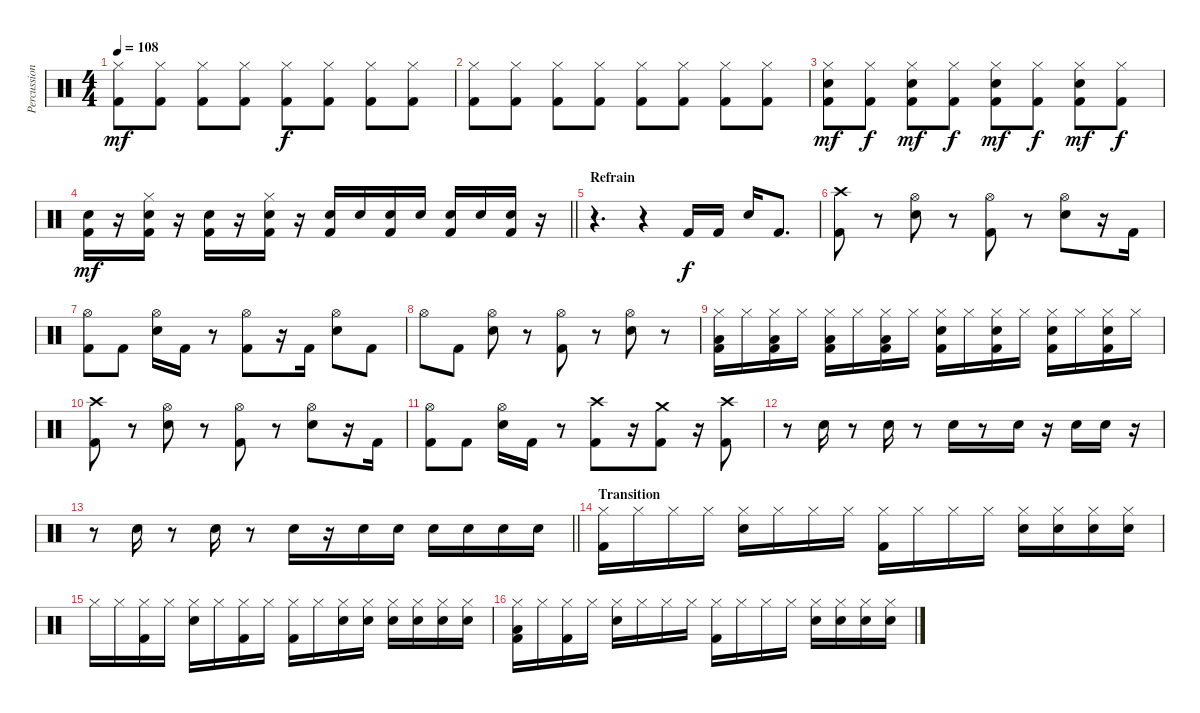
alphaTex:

\track ("Percussions" "Percussion") {instrument percussion}
\staff {score}
\articulation defaults
\ts (4 4)
\tempo 108
\clef neutral
\ks c
("Hi-Hat (closed)" "Kick (hit) 2").8{dy mf} ("Hi-Hat (closed)" "Kick (hit) 2").8 ("Hi-Hat (closed)" "Kick (hit) 2").8 ("Hi-Hat (closed)" "Kick (hit) 2").8 ("Hi-Hat (closed)" "Kick (hit) 2").8{dy f} ("Hi-Hat (closed)" "Kick (hit) 2").8 ("Hi-Hat (closed)" "Kick (hit) 2").8 ("Hi-Hat (closed)" "Kick (hit) 2").8 |
("Hi-Hat (closed)" "Kick (hit) 2").8 ("Hi-Hat (closed)" "Kick (hit) 2").8 ("Hi-Hat (closed)" "Kick (hit) 2").8 ("Hi-Hat (closed)" "Kick (hit) 2").8 ("Hi-Hat (closed)" "Kick (hit) 2").8 ("Hi-Hat (closed)" "Kick (hit) 2").8 ("Hi-Hat (closed)" "Kick (hit) 2").8 ("Hi-Hat (closed)" "Kick (hit) 2").8 |
("Hi-Hat (closed)" "Snare (hit) 2" "Kick (hit) 2").8{dy mf} ("Hi-Hat (closed)" "Kick (hit) 2").8{dy f} ("Hi-Hat (closed)" "Snare (hit) 2" "Kick (hit) 2").8{dy mf} ("Hi-Hat (closed)" "Kick (hit) 2").8{dy f} ("Hi-Hat (closed)" "Snare (hit) 2" "Kick (hit) 2").8{dy mf} ("Hi-Hat (closed)" "Kick (hit) 2").8{dy f} ("Hi-Hat (closed)" "Snare (hit) 2" "Kick (hit) 2").8{dy mf} ("Hi-Hat (closed)" "Kick (hit) 2").8{dy f} |
\barLineRight lightlight
("Snare (hit) 2" "Kick (hit) 2").16{dy mf} r.16 ("Hi-Hat (closed)" "Snare (hit) 2" "Kick (hit) 2").16 r.16 ("Snare (hit) 2" "Kick (hit) 2").16 r.16 ("Hi-Hat (closed)" "Snare (hit) 2" "Kick (hit) 2").16 r.16 ("Snare (hit) 2" "Kick (hit) 2").16 "Snare (hit) 2".16 ("Snare (hit) 2" "Kick (hit) 2").16 "Snare (hit) 2".16 ("Snare (hit) 2" "Kick (hit) 2").16 "Snare (hit) 2".16 ("Snare (hit) 2" "Kick (hit) 2").16 r.16 |
\section ("" "Refrain")
r.4{d} r.4 "Kick (hit) 2".16{dy f} "Kick (hit) 2".16 "Snare (hit) 2".16 "Kick (hit) 2".8{d} |
("Crash high (hit)" "Kick (hit) 2").8 r.8 ("Hi-Hat (open)" "Snare (hit) 2").8 r.8 ("Hi-Hat (open)" "Kick (hit) 2").8 r.8 ("Hi-Hat (open)" "Snare (hit) 2").8 r.16 "Kick (hit) 2".16 |
("Hi-Hat (open)" "Kick (hit) 2").8 "Kick (hit) 2".8 ("Hi-Hat (open)" "Snare (hit) 2").16 "Kick (hit) 2".16 r.8 ("Hi-Hat (open)" "Kick (hit) 2").8 r.16 "Kick (hit) 2".16 ("Hi-Hat (open)" "Snare (hit) 2").8 "Kick (hit) 2".8 |
"Hi-Hat (open)".8 "Kick (hit) 2".8 ("Hi-Hat (open)" "Snare (hit) 2").8 r.8 ("Hi-Hat (open)" "Kick (hit) 2").8 r.8 ("Hi-Hat (open)" "Snare (hit) 2").8 r.8 |
("Hi-Hat (closed)" "Low Floor Tom (hit)" "Kick (hit) 2").16 "Hi-Hat (closed)".16 ("Hi-Hat (closed)" "Low Floor Tom (hit)" "Kick (hit) 2").16 "Hi-Hat (closed)".16 ("Hi-Hat (closed)" "Low Floor Tom (hit)" "Kick (hit) 2").16 "Hi-Hat (closed)".16 ("Hi-Hat (closed)" "Low Floor Tom (hit)" "Kick (hit) 2").16 "Hi-Hat (closed)".16 ("Hi-Hat (closed)" "Electric Snare (hit)" "Kick (hit) 2").16 "Hi-Hat (closed)".16 ("Hi-Hat (closed)" "Electric Snare (hit)" "Kick (hit) 2").16 "Hi-Hat (closed)".16 ("Hi-Hat (closed)" "Electric Snare (hit)" "Kick (hit) 2").16 "Hi-Hat (closed)".16 ("Hi-Hat (closed)" "Electric Snare (hit)" "Kick (hit) 2").16 "Hi-Hat (closed)".16 |
("Crash high (hit)" "Kick (hit) 2").8 r.8 ("Hi-Hat (open)" "Snare (hit) 2").8 r.8 ("Hi-Hat (open)" "Kick (hit) 2").8 r.8 ("Hi-Hat (open)" "Snare (hit) 2").8 r.16 "Kick (hit) 2".16 |
("Hi-Hat (open)" "Kick (hit) 2").8 "Kick (hit) 2".8 ("Hi-Hat (open)" "Snare (hit) 2").16 "Kick (hit) 2".16 r.8 ("Crash high (hit)" "Kick (hit) 2").8 r.16 ("Crash medium (hit)" "Kick (hit) 2").8 r.16 ("Crash high (hit)" "Kick (hit) 2").8 |
r.8 "Electric Snare (hit)".16 r.8 "Electric Snare (hit)".16 r.8 "Electric Snare (hit)".16 r.8 "Electric Snare (hit)".16 r.16 "Electric Snare (hit)".16 "Electric Snare (hit)".16 r.16 |
\barLineRight lightlight
r.8 "Electric Snare (hit)".16 r.8 "Electric Snare (hit)".16 r.8 "Electric Snare (hit)".16 r.16 "Electric Snare (hit)".16 "Electric Snare (hit)".16 "Electric Snare (hit)".16 "Electric Snare (hit)".16 "Electric Snare (hit)".16 "Electric Snare (hit)".16 |
\section ("" "Transition")
("Hi-Hat (closed)" "Kick (hit) 2").16 "Hi-Hat (closed)".16 "Hi-Hat (closed)".16 "Hi-Hat (closed)".16 ("Hi-Hat (closed)" "Snare (hit) 2").16 "Hi-Hat (closed)".16 "Hi-Hat (closed)".16 "Hi-Hat (closed)".16 ("Hi-Hat (closed)" "Kick (hit) 2").16 "Hi-Hat (closed)".16 "Hi-Hat (closed)".16 "Hi-Hat (closed)".16 ("Hi-Hat (closed)" "Snare (hit) 2").16 ("Hi-Hat (closed)" "Snare (hit) 2").16 ("Hi-Hat (closed)" "Snare (hit) 2").16 ("Hi-Hat (closed)" "Snare (hit) 2").16 |
"Hi-Hat (closed)".16 "Hi-Hat (closed)".16 ("Hi-Hat (closed)" "Kick (hit) 2").16 "Hi-Hat (closed)".16 ("Hi-Hat (closed)" "Snare (hit) 2").16 "Hi-Hat (closed)".16 ("Hi-Hat (closed)" "Kick (hit) 2").16 "Hi-Hat (closed)".16 ("Hi-Hat (closed)" "Kick (hit) 2").16 "Hi-Hat (closed)".16 ("Hi-Hat (closed)" "Snare (hit) 2").16 ("Hi-Hat (closed)" "Snare (hit) 2").16 ("Hi-Hat (closed)" "Snare (hit) 2").16 ("Hi-Hat (closed)" "Snare (hit) 2").16 ("Hi-Hat (closed)" "Snare (hit) 2").16 ("Hi-Hat (closed)" "Snare (hit) 2").16 |
("Hi-Hat (closed)" "Low Floor Tom (hit)" "Kick (hit) 2").16 "Hi-Hat (closed)".16 ("Hi-Hat (closed)" "Kick (hit) 2").16 "Hi-Hat (closed)".16 ("Hi-Hat (closed)" "Snare (hit) 2").16 "Hi-Hat (closed)".16 "Hi-Hat (closed)".16 "Hi-Hat (closed)".16 ("Hi-Hat (closed)" "Kick (hit) 2").16 "Hi-Hat (closed)".16 "Hi-Hat (closed)".16 "Hi-Hat (closed)".16 ("Hi-Hat (closed)" "Snare (hit) 2").16 ("Hi-Hat (closed)" "Snare (hit) 2").16 ("Hi-Hat (closed)" "Snare (hit) 2").16 ("Hi-Hat (closed)" "Snare (hit) 2").16
